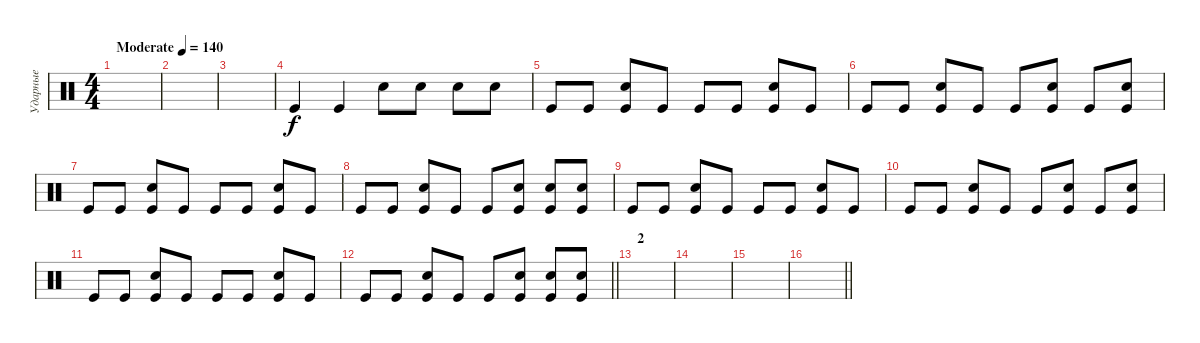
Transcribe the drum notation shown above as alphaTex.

\track ("Ударные" "Ударные") {instrument percussion}
\staff {score}
\articulation defaults
\ts (4 4)
\tempo (140 "Moderate")
\clef neutral
\ks c
|
|
|
"Kick (hit)".4 "Kick (hit)".4 "Snare (hit) 2".8 "Snare (hit) 2".8 "Snare (hit) 2".8 "Snare (hit) 2".8 |
"Kick (hit)".8 "Kick (hit)".8 ("Kick (hit)" "Snare (hit) 2").8 "Kick (hit)".8 "Kick (hit)".8 "Kick (hit)".8 ("Kick (hit)" "Snare (hit) 2").8 "Kick (hit)".8 |
"Kick (hit)".8 "Kick (hit)".8 ("Kick (hit)" "Snare (hit) 2").8 "Kick (hit)".8 "Kick (hit)".8 ("Kick (hit)" "Snare (hit) 2").8 "Kick (hit)".8 ("Kick (hit)" "Snare (hit) 2").8 |
"Kick (hit)".8 "Kick (hit)".8 ("Kick (hit)" "Snare (hit) 2").8 "Kick (hit)".8 "Kick (hit)".8 "Kick (hit)".8 ("Kick (hit)" "Snare (hit) 2").8 "Kick (hit)".8 |
"Kick (hit)".8 "Kick (hit)".8 ("Kick (hit)" "Snare (hit) 2").8 "Kick (hit)".8 "Kick (hit)".8 ("Kick (hit)" "Snare (hit) 2").8 ("Kick (hit)" "Snare (hit) 2").8 ("Kick (hit)" "Snare (hit) 2").8 |
"Kick (hit)".8 "Kick (hit)".8 ("Kick (hit)" "Snare (hit) 2").8 "Kick (hit)".8 "Kick (hit)".8 "Kick (hit)".8 ("Kick (hit)" "Snare (hit) 2").8 "Kick (hit)".8 |
"Kick (hit)".8 "Kick (hit)".8 ("Kick (hit)" "Snare (hit) 2").8 "Kick (hit)".8 "Kick (hit)".8 ("Kick (hit)" "Snare (hit) 2").8 "Kick (hit)".8 ("Kick (hit)" "Snare (hit) 2").8 |
"Kick (hit)".8 "Kick (hit)".8 ("Kick (hit)" "Snare (hit) 2").8 "Kick (hit)".8 "Kick (hit)".8 "Kick (hit)".8 ("Kick (hit)" "Snare (hit) 2").8 "Kick (hit)".8 |
\barLineRight lightlight "Kick (hit)".8 "Kick (hit)".8
("Kick (hit)" "Snare (hit) 2").8 "Kick (hit)".8 "Kick (hit)".8 ("Kick (hit)" "Snare (hit) 2").8 ("Kick (hit)" "Snare (hit) 2").8 ("Kick (hit)" "Snare (hit) 2").8 |
\section ("" "2")
|
|
|
\barLineRight lightlight
